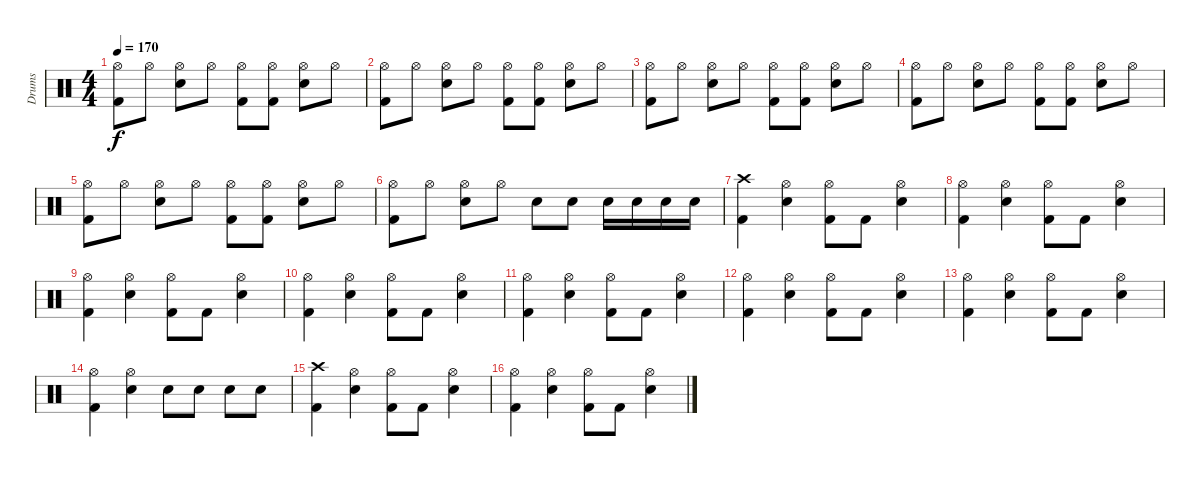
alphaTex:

\track ("Drums" "Drums") {instrument percussion}
\staff {score}
\articulation defaults
\ts (4 4)
\tempo 170
\clef neutral
\ks c
("Hi-Hat (open)" "Kick (hit) 2").8{dy f} "Hi-Hat (open)".8 ("Hi-Hat (open)" "Snare (hit) 2").8 "Hi-Hat (open)".8 ("Hi-Hat (open)" "Kick (hit) 2").8 ("Hi-Hat (open)" "Kick (hit) 2").8 ("Hi-Hat (open)" "Snare (hit) 2").8 "Hi-Hat (open)".8 |
("Hi-Hat (open)" "Kick (hit) 2").8 "Hi-Hat (open)".8 ("Hi-Hat (open)" "Snare (hit) 2").8 "Hi-Hat (open)".8 ("Hi-Hat (open)" "Kick (hit) 2").8 ("Hi-Hat (open)" "Kick (hit) 2").8 ("Hi-Hat (open)" "Snare (hit) 2").8 "Hi-Hat (open)".8 |
("Hi-Hat (open)" "Kick (hit) 2").8 "Hi-Hat (open)".8 ("Hi-Hat (open)" "Snare (hit) 2").8 "Hi-Hat (open)".8 ("Hi-Hat (open)" "Kick (hit) 2").8 ("Hi-Hat (open)" "Kick (hit) 2").8 ("Hi-Hat (open)" "Snare (hit) 2").8 "Hi-Hat (open)".8 |
("Hi-Hat (open)" "Kick (hit) 2").8 "Hi-Hat (open)".8 ("Hi-Hat (open)" "Snare (hit) 2").8 "Hi-Hat (open)".8 ("Hi-Hat (open)" "Kick (hit) 2").8 ("Hi-Hat (open)" "Kick (hit) 2").8 ("Hi-Hat (open)" "Snare (hit) 2").8 "Hi-Hat (open)".8 |
("Hi-Hat (open)" "Kick (hit) 2").8 "Hi-Hat (open)".8 ("Hi-Hat (open)" "Snare (hit) 2").8 "Hi-Hat (open)".8 ("Hi-Hat (open)" "Kick (hit) 2").8 ("Hi-Hat (open)" "Kick (hit) 2").8 ("Hi-Hat (open)" "Snare (hit) 2").8 "Hi-Hat (open)".8 |
("Hi-Hat (open)" "Kick (hit) 2").8 "Hi-Hat (open)".8 ("Hi-Hat (open)" "Snare (hit) 2").8 "Hi-Hat (open)".8 "Snare (hit) 2".8 "Snare (hit) 2".8 "Snare (hit) 2".16 "Snare (hit) 2".16 "Snare (hit) 2".16 "Snare (hit) 2".16 |
("Crash high (hit)" "Kick (hit) 2").4 ("Hi-Hat (open)" "Snare (hit) 2").4 ("Hi-Hat (open)" "Kick (hit) 2").8 "Kick (hit) 2".8 ("Hi-Hat (open)" "Snare (hit) 2").4 |
("Hi-Hat (open)" "Kick (hit) 2").4 ("Hi-Hat (open)" "Snare (hit) 2").4 ("Hi-Hat (open)" "Kick (hit) 2").8 "Kick (hit) 2".8 ("Hi-Hat (open)" "Snare (hit) 2").4 |
("Hi-Hat (open)" "Kick (hit) 2").4 ("Hi-Hat (open)" "Snare (hit) 2").4 ("Hi-Hat (open)" "Kick (hit) 2").8 "Kick (hit) 2".8 ("Hi-Hat (open)" "Snare (hit) 2").4 |
("Hi-Hat (open)" "Kick (hit) 2").4 ("Hi-Hat (open)" "Snare (hit) 2").4 ("Hi-Hat (open)" "Kick (hit) 2").8 "Kick (hit) 2".8 ("Hi-Hat (open)" "Snare (hit) 2").4 |
("Hi-Hat (open)" "Kick (hit) 2").4 ("Hi-Hat (open)" "Snare (hit) 2").4 ("Hi-Hat (open)" "Kick (hit) 2").8 "Kick (hit) 2".8 ("Hi-Hat (open)" "Snare (hit) 2").4 |
("Hi-Hat (open)" "Kick (hit) 2").4 ("Hi-Hat (open)" "Snare (hit) 2").4 ("Hi-Hat (open)" "Kick (hit) 2").8 "Kick (hit) 2".8 ("Hi-Hat (open)" "Snare (hit) 2").4 |
("Hi-Hat (open)" "Kick (hit) 2").4 ("Hi-Hat (open)" "Snare (hit) 2").4 ("Hi-Hat (open)" "Kick (hit) 2").8 "Kick (hit) 2".8 ("Hi-Hat (open)" "Snare (hit) 2").4 |
("Hi-Hat (open)" "Kick (hit) 2").4 ("Hi-Hat (open)" "Snare (hit) 2").4 "Snare (hit) 2".8 "Snare (hit) 2".8 "Snare (hit) 2".8 "Snare (hit) 2".8 |
("Crash high (hit)" "Kick (hit) 2").4 ("Hi-Hat (open)" "Snare (hit) 2").4 ("Hi-Hat (open)" "Kick (hit) 2").8 "Kick (hit) 2".8 ("Hi-Hat (open)" "Snare (hit) 2").4 |
("Hi-Hat (open)" "Kick (hit) 2").4 ("Hi-Hat (open)" "Snare (hit) 2").4 ("Hi-Hat (open)" "Kick (hit) 2").8 "Kick (hit) 2".8 ("Hi-Hat (open)" "Snare (hit) 2").4
